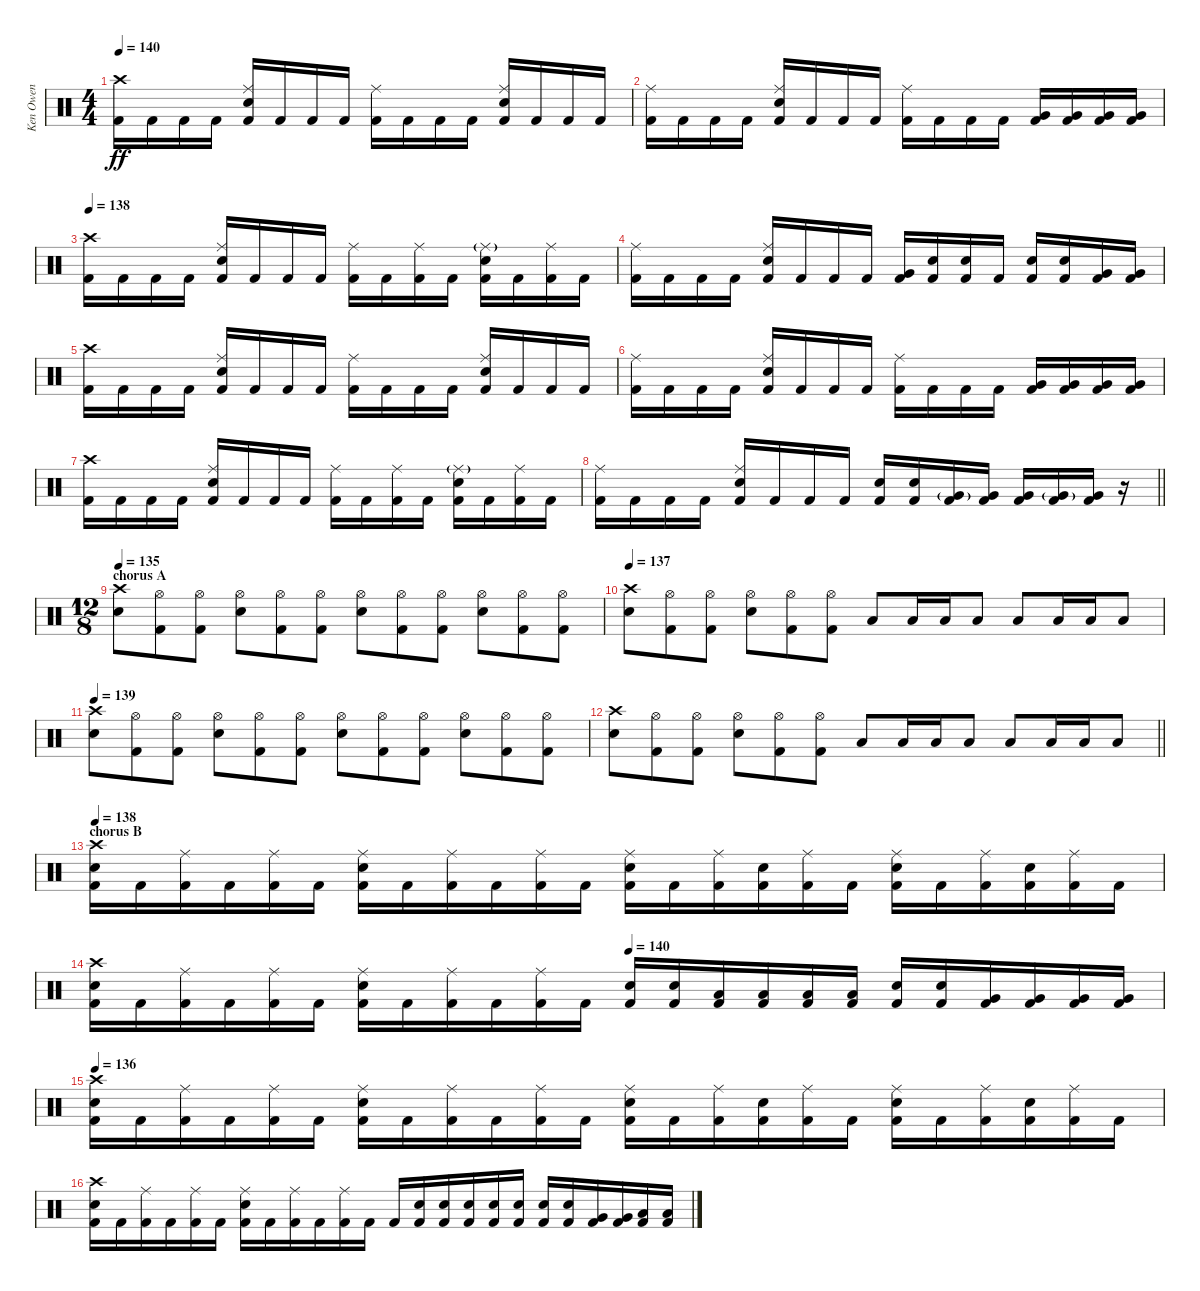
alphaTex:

\track ("Ken Owen" "Ken Owen") {instrument percussion}
\staff {score}
\articulation defaults
\ts (4 4)
\tempo 140
\clef neutral
\ks c
("Crash high (hit)" "Kick (hit) 2").16{dy ff} "Kick (hit) 2".16 "Kick (hit) 2".16 "Kick (hit) 2".16 ("Ride (middle)" "Snare (hit) 2" "Kick (hit) 2").16 "Kick (hit) 2".16 "Kick (hit) 2".16 "Kick (hit) 2".16 ("Ride (middle)" "Kick (hit) 2").16 "Kick (hit) 2".16 "Kick (hit) 2".16 "Kick (hit) 2".16 ("Ride (middle)" "Snare (hit) 2" "Kick (hit) 2").16 "Kick (hit) 2".16 "Kick (hit) 2".16 "Kick (hit) 2".16 |
("Ride (middle)" "Kick (hit) 2").16 "Kick (hit) 2".16 "Kick (hit) 2".16 "Kick (hit) 2".16 ("Ride (middle)" "Snare (hit) 2" "Kick (hit) 2").16 "Kick (hit) 2".16 "Kick (hit) 2".16 "Kick (hit) 2".16 ("Ride (middle)" "Kick (hit) 2").16 "Kick (hit) 2".16 "Kick (hit) 2".16 "Kick (hit) 2".16 ("Very Low Tom (hit)" "Kick (hit) 2").16 ("Very Low Tom (hit)" "Kick (hit) 2").16 ("Very Low Tom (hit)" "Kick (hit) 2").16 ("Very Low Tom (hit)" "Kick (hit) 2").16 |
\tempo 138
("Crash high (hit)" "Kick (hit) 2").16 "Kick (hit) 2".16 "Kick (hit) 2".16 "Kick (hit) 2".16 ("Ride (middle)" "Snare (hit) 2" "Kick (hit) 2").16 "Kick (hit) 2".16 "Kick (hit) 2".16 "Kick (hit) 2".16 ("Ride (middle)" "Kick (hit) 2").16 "Kick (hit) 2".16 ("Ride (middle)" "Kick (hit) 2").16 "Kick (hit) 2".16 ("Ride (middle)"{g} "Snare (hit) 2" "Kick (hit) 2").16 "Kick (hit) 2".16 ("Ride (middle)" "Kick (hit) 2").16 "Kick (hit) 2".16 |
("Ride (middle)" "Kick (hit) 2").16 "Kick (hit) 2".16 "Kick (hit) 2".16 "Kick (hit) 2".16 ("Ride (middle)" "Snare (hit) 2" "Kick (hit) 2").16 "Kick (hit) 2".16 "Kick (hit) 2".16 "Kick (hit) 2".16 ("Very Low Tom (hit)" "Kick (hit) 2").16 ("Snare (hit) 2" "Kick (hit) 2").16 ("Snare (hit) 2" "Kick (hit) 2").16 "Kick (hit) 2".16 ("Snare (hit) 2" "Kick (hit) 2").16 ("Snare (hit) 2" "Kick (hit) 2").16 ("Very Low Tom (hit)" "Kick (hit) 2").16 ("Very Low Tom (hit)" "Kick (hit) 2").16 |
("Crash high (hit)" "Kick (hit) 2").16 "Kick (hit) 2".16 "Kick (hit) 2".16 "Kick (hit) 2".16 ("Ride (middle)" "Snare (hit) 2" "Kick (hit) 2").16 "Kick (hit) 2".16 "Kick (hit) 2".16 "Kick (hit) 2".16 ("Ride (middle)" "Kick (hit) 2").16 "Kick (hit) 2".16 "Kick (hit) 2".16 "Kick (hit) 2".16 ("Ride (middle)" "Snare (hit) 2" "Kick (hit) 2").16 "Kick (hit) 2".16 "Kick (hit) 2".16 "Kick (hit) 2".16 |
("Ride (middle)" "Kick (hit) 2").16 "Kick (hit) 2".16 "Kick (hit) 2".16 "Kick (hit) 2".16 ("Ride (middle)" "Snare (hit) 2" "Kick (hit) 2").16 "Kick (hit) 2".16 "Kick (hit) 2".16 "Kick (hit) 2".16 ("Ride (middle)" "Kick (hit) 2").16 "Kick (hit) 2".16 "Kick (hit) 2".16 "Kick (hit) 2".16 ("Very Low Tom (hit)" "Kick (hit) 2").16 ("Very Low Tom (hit)" "Kick (hit) 2").16 ("Very Low Tom (hit)" "Kick (hit) 2").16 ("Very Low Tom (hit)" "Kick (hit) 2").16 |
("Crash high (hit)" "Kick (hit) 2").16 "Kick (hit) 2".16 "Kick (hit) 2".16 "Kick (hit) 2".16 ("Ride (middle)" "Snare (hit) 2" "Kick (hit) 2").16 "Kick (hit) 2".16 "Kick (hit) 2".16 "Kick (hit) 2".16 ("Ride (middle)" "Kick (hit) 2").16 "Kick (hit) 2".16 ("Ride (middle)" "Kick (hit) 2").16 "Kick (hit) 2".16 ("Ride (middle)"{g} "Snare (hit) 2" "Kick (hit) 2").16 "Kick (hit) 2".16 ("Ride (middle)" "Kick (hit) 2").16 "Kick (hit) 2".16 |
\barLineRight lightlight
("Ride (middle)" "Kick (hit) 2").16 "Kick (hit) 2".16 "Kick (hit) 2".16 "Kick (hit) 2".16 ("Ride (middle)" "Snare (hit) 2" "Kick (hit) 2").16 "Kick (hit) 2".16 "Kick (hit) 2".16 "Kick (hit) 2".16 ("Snare (hit) 2" "Kick (hit) 2").16 ("Snare (hit) 2" "Kick (hit) 2").16 ("Very Low Tom (hit)"{g} "Kick (hit) 2").16 ("Very Low Tom (hit)" "Kick (hit) 2").16 ("Very Low Tom (hit)" "Kick (hit) 2").16 ("Very Low Tom (hit)"{g} "Kick (hit) 2").16 ("Very Low Tom (hit)" "Kick (hit) 2").16 r.16 |
\ts (12 8)
\section ("" "chorus A")
\tempo 135
("Crash high (hit)" "Snare (hit) 2").8 ("Hi-Hat (open)" "Kick (hit) 2").8 ("Hi-Hat (open)" "Kick (hit) 2").8 ("Hi-Hat (open)" "Snare (hit) 2").8 ("Hi-Hat (open)" "Kick (hit) 2").8 ("Hi-Hat (open)" "Kick (hit) 2").8 ("Hi-Hat (open)" "Snare (hit) 2").8 ("Hi-Hat (open)" "Kick (hit) 2").8 ("Hi-Hat (open)" "Kick (hit) 2").8 ("Hi-Hat (open)" "Snare (hit) 2").8 ("Hi-Hat (open)" "Kick (hit) 2").8 ("Hi-Hat (open)" "Kick (hit) 2").8 |
\tempo 137
("Crash high (hit)" "Snare (hit) 2").8 ("Hi-Hat (open)" "Kick (hit) 2").8 ("Hi-Hat (open)" "Kick (hit) 2").8 ("Hi-Hat (open)" "Snare (hit) 2").8 ("Hi-Hat (open)" "Kick (hit) 2").8 ("Hi-Hat (open)" "Kick (hit) 2").8 "Low Tom (hit)".8 "Low Tom (hit)".16 "Low Tom (hit)".16 "Low Tom (hit)".8 "Low Floor Tom (hit)".8 "Low Floor Tom (hit)".16 "Low Floor Tom (hit)".16 "Low Floor Tom (hit)".8 |
\tempo 139
("Crash high (hit)" "Snare (hit) 2").8 ("Hi-Hat (open)" "Kick (hit) 2").8 ("Hi-Hat (open)" "Kick (hit) 2").8 ("Hi-Hat (open)" "Snare (hit) 2").8 ("Hi-Hat (open)" "Kick (hit) 2").8 ("Hi-Hat (open)" "Kick (hit) 2").8 ("Hi-Hat (open)" "Snare (hit) 2").8 ("Hi-Hat (open)" "Kick (hit) 2").8 ("Hi-Hat (open)" "Kick (hit) 2").8 ("Hi-Hat (open)" "Snare (hit) 2").8 ("Hi-Hat (open)" "Kick (hit) 2").8 ("Hi-Hat (open)" "Kick (hit) 2").8 |
\barLineRight lightlight
("Crash high (hit)" "Snare (hit) 2").8 ("Hi-Hat (open)" "Kick (hit) 2").8 ("Hi-Hat (open)" "Kick (hit) 2").8 ("Hi-Hat (open)" "Snare (hit) 2").8 ("Hi-Hat (open)" "Kick (hit) 2").8 ("Hi-Hat (open)" "Kick (hit) 2").8 "Low Tom (hit)".8 "Low Tom (hit)".16 "Low Tom (hit)".16 "Low Tom (hit)".8 "Low Floor Tom (hit)".8 "Low Floor Tom (hit)".16 "Low Floor Tom (hit)".16 "Low Floor Tom (hit)".8 |
\section ("" "chorus B")
\tempo 138
("Crash high (hit)" "Snare (hit) 2" "Kick (hit) 2").16 "Kick (hit) 2".16 ("Ride (middle)" "Kick (hit) 2").16 "Kick (hit) 2".16 ("Ride (middle)" "Kick (hit) 2").16 "Kick (hit) 2".16 ("Ride (middle)" "Snare (hit) 2" "Kick (hit) 2").16 "Kick (hit) 2".16 ("Ride (middle)" "Kick (hit) 2").16 "Kick (hit) 2".16 ("Ride (middle)" "Kick (hit) 2").16 "Kick (hit) 2".16 ("Ride (middle)" "Snare (hit) 2" "Kick (hit) 2").16 "Kick (hit) 2".16 ("Ride (middle)" "Kick (hit) 2").16 ("Snare (hit) 2" "Kick (hit) 2").16 ("Ride (middle)" "Kick (hit) 2").16 "Kick (hit) 2".16 ("Ride (middle)" "Snare (hit) 2" "Kick (hit) 2").16 "Kick (hit) 2".16 ("Ride (middle)" "Kick (hit) 2").16 ("Snare (hit) 2" "Kick (hit) 2").16 ("Ride (middle)" "Kick (hit) 2").16 "Kick (hit) 2".16 |
\tempo (140 0.5)
("Crash high (hit)" "Snare (hit) 2" "Kick (hit) 2").16 "Kick (hit) 2".16 ("Ride (middle)" "Kick (hit) 2").16 "Kick (hit) 2".16 ("Ride (middle)" "Kick (hit) 2").16 "Kick (hit) 2".16 ("Ride (middle)" "Snare (hit) 2" "Kick (hit) 2").16 "Kick (hit) 2".16 ("Ride (middle)" "Kick (hit) 2").16 "Kick (hit) 2".16 ("Ride (middle)" "Kick (hit) 2").16 "Kick (hit) 2".16 ("Snare (hit) 2" "Kick (hit) 2").16 ("Snare (hit) 2" "Kick (hit) 2").16 ("Low Tom (hit)" "Kick (hit) 2").16 ("Low Tom (hit)" "Kick (hit) 2").16 ("Low Tom (hit)" "Kick (hit) 2").16 ("Low Tom (hit)" "Kick (hit) 2").16 ("Snare (hit) 2" "Kick (hit) 2").16 ("Snare (hit) 2" "Kick (hit) 2").16 ("Very Low Tom (hit)" "Kick (hit) 2").16 ("Very Low Tom (hit)" "Kick (hit) 2").16 ("Very Low Tom (hit)" "Kick (hit) 2").16 ("Very Low Tom (hit)" "Kick (hit) 2").16 |
\tempo 136
("Crash high (hit)" "Snare (hit) 2" "Kick (hit) 2").16 "Kick (hit) 2".16 ("Ride (middle)" "Kick (hit) 2").16 "Kick (hit) 2".16 ("Ride (middle)" "Kick (hit) 2").16 "Kick (hit) 2".16 ("Ride (middle)" "Snare (hit) 2" "Kick (hit) 2").16 "Kick (hit) 2".16 ("Ride (middle)" "Kick (hit) 2").16 "Kick (hit) 2".16 ("Ride (middle)" "Kick (hit) 2").16 "Kick (hit) 2".16 ("Ride (middle)" "Snare (hit) 2" "Kick (hit) 2").16 "Kick (hit) 2".16 ("Ride (middle)" "Kick (hit) 2").16 ("Snare (hit) 2" "Kick (hit) 2").16 ("Ride (middle)" "Kick (hit) 2").16 "Kick (hit) 2".16 ("Ride (middle)" "Snare (hit) 2" "Kick (hit) 2").16 "Kick (hit) 2".16 ("Ride (middle)" "Kick (hit) 2").16 ("Snare (hit) 2" "Kick (hit) 2").16 ("Ride (middle)" "Kick (hit) 2").16 "Kick (hit) 2".16 |
("Crash high (hit)" "Snare (hit) 2" "Kick (hit) 2").16 "Kick (hit) 2".16 ("Ride (middle)" "Kick (hit) 2").16 "Kick (hit) 2".16 ("Ride (middle)" "Kick (hit) 2").16 "Kick (hit) 2".16 ("Ride (middle)" "Snare (hit) 2" "Kick (hit) 2").16 "Kick (hit) 2".16 ("Ride (middle)" "Kick (hit) 2").16 "Kick (hit) 2".16 ("Ride (middle)" "Kick (hit) 2").16 "Kick (hit) 2".16 "Kick (hit) 2".16 ("Snare (hit) 2" "Kick (hit) 2").16 ("Snare (hit) 2" "Kick (hit) 2").16 ("Snare (hit) 2" "Kick (hit) 2").16 ("Snare (hit) 2" "Kick (hit) 2").16 ("Snare (hit) 2" "Kick (hit) 2").16 ("Snare (hit) 2" "Kick (hit) 2").16 ("Snare (hit) 2" "Kick (hit) 2").16 ("Very Low Tom (hit)" "Kick (hit) 2").16 ("Very Low Tom (hit)" "Kick (hit) 2").16 ("Low Tom (hit)" "Kick (hit) 2").16 ("Low Tom (hit)" "Kick (hit) 2").16
